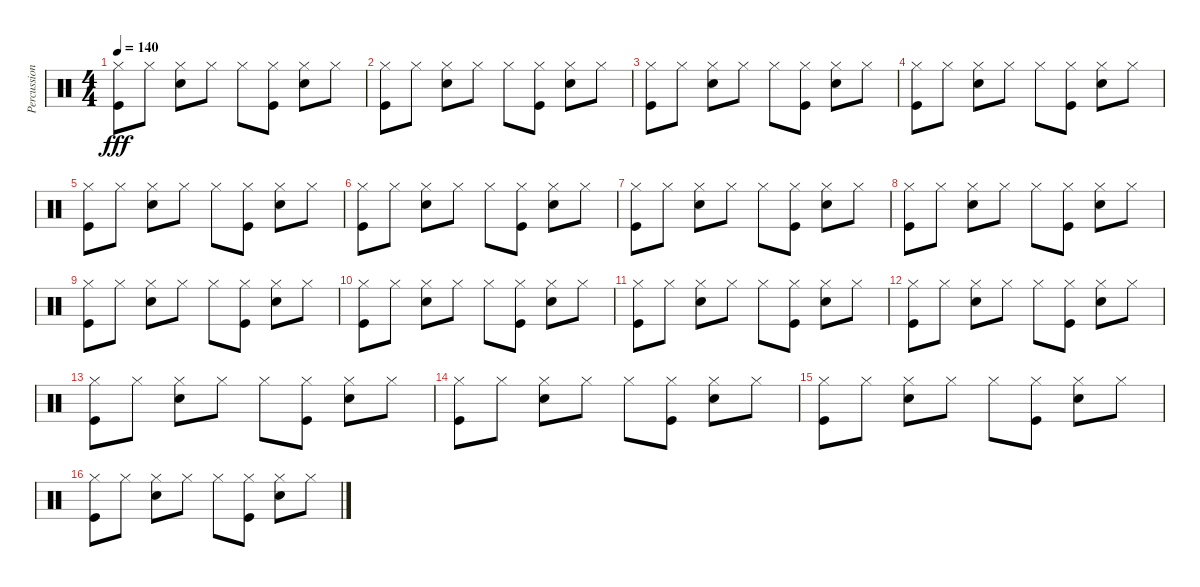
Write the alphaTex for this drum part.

\track ("Percussion" "Percussion") {instrument percussion}
\staff {score}
\articulation defaults
\ts (4 4)
\tempo 140
\clef neutral
\ks c
("Hi-Hat (closed)" "Kick (hit)").8{dy fff} "Hi-Hat (closed)".8 ("Hi-Hat (closed)" "Snare (hit) 2").8 "Hi-Hat (closed)".8 "Hi-Hat (closed)".8 ("Hi-Hat (closed)" "Kick (hit)").8 ("Hi-Hat (closed)" "Snare (hit) 2").8 "Hi-Hat (closed)".8 |
("Hi-Hat (closed)" "Kick (hit)").8 "Hi-Hat (closed)".8 ("Hi-Hat (closed)" "Snare (hit) 2").8 "Hi-Hat (closed)".8 "Hi-Hat (closed)".8 ("Hi-Hat (closed)" "Kick (hit)").8 ("Hi-Hat (closed)" "Snare (hit) 2").8 "Hi-Hat (closed)".8 |
("Hi-Hat (closed)" "Kick (hit)").8 "Hi-Hat (closed)".8 ("Hi-Hat (closed)" "Snare (hit) 2").8 "Hi-Hat (closed)".8 "Hi-Hat (closed)".8 ("Hi-Hat (closed)" "Kick (hit)").8 ("Hi-Hat (closed)" "Snare (hit) 2").8 "Hi-Hat (closed)".8 |
("Hi-Hat (closed)" "Kick (hit)").8 "Hi-Hat (closed)".8 ("Hi-Hat (closed)" "Snare (hit) 2").8 "Hi-Hat (closed)".8 "Hi-Hat (closed)".8 ("Hi-Hat (closed)" "Kick (hit)").8 ("Hi-Hat (closed)" "Snare (hit) 2").8 "Hi-Hat (closed)".8 |
("Hi-Hat (closed)" "Kick (hit)").8 "Hi-Hat (closed)".8 ("Hi-Hat (closed)" "Snare (hit) 2").8 "Hi-Hat (closed)".8 "Hi-Hat (closed)".8 ("Hi-Hat (closed)" "Kick (hit)").8 ("Hi-Hat (closed)" "Snare (hit) 2").8 "Hi-Hat (closed)".8 |
("Hi-Hat (closed)" "Kick (hit)").8 "Hi-Hat (closed)".8 ("Hi-Hat (closed)" "Snare (hit) 2").8 "Hi-Hat (closed)".8 "Hi-Hat (closed)".8 ("Hi-Hat (closed)" "Kick (hit)").8 ("Hi-Hat (closed)" "Snare (hit) 2").8 "Hi-Hat (closed)".8 |
("Hi-Hat (closed)" "Kick (hit)").8 "Hi-Hat (closed)".8 ("Hi-Hat (closed)" "Snare (hit) 2").8 "Hi-Hat (closed)".8 "Hi-Hat (closed)".8 ("Hi-Hat (closed)" "Kick (hit)").8 ("Hi-Hat (closed)" "Snare (hit) 2").8 "Hi-Hat (closed)".8 |
("Hi-Hat (closed)" "Kick (hit)").8 "Hi-Hat (closed)".8 ("Hi-Hat (closed)" "Snare (hit) 2").8 "Hi-Hat (closed)".8 "Hi-Hat (closed)".8 ("Hi-Hat (closed)" "Kick (hit)").8 ("Hi-Hat (closed)" "Snare (hit) 2").8 "Hi-Hat (closed)".8 |
("Hi-Hat (closed)" "Kick (hit)").8 "Hi-Hat (closed)".8 ("Hi-Hat (closed)" "Snare (hit) 2").8 "Hi-Hat (closed)".8 "Hi-Hat (closed)".8 ("Hi-Hat (closed)" "Kick (hit)").8 ("Hi-Hat (closed)" "Snare (hit) 2").8 "Hi-Hat (closed)".8 |
("Hi-Hat (closed)" "Kick (hit)").8 "Hi-Hat (closed)".8 ("Hi-Hat (closed)" "Snare (hit) 2").8 "Hi-Hat (closed)".8 "Hi-Hat (closed)".8 ("Hi-Hat (closed)" "Kick (hit)").8 ("Hi-Hat (closed)" "Snare (hit) 2").8 "Hi-Hat (closed)".8 |
("Hi-Hat (closed)" "Kick (hit)").8 "Hi-Hat (closed)".8 ("Hi-Hat (closed)" "Snare (hit) 2").8 "Hi-Hat (closed)".8 "Hi-Hat (closed)".8 ("Hi-Hat (closed)" "Kick (hit)").8 ("Hi-Hat (closed)" "Snare (hit) 2").8 "Hi-Hat (closed)".8 |
("Hi-Hat (closed)" "Kick (hit)").8 "Hi-Hat (closed)".8 ("Hi-Hat (closed)" "Snare (hit) 2").8 "Hi-Hat (closed)".8 "Hi-Hat (closed)".8 ("Hi-Hat (closed)" "Kick (hit)").8 ("Hi-Hat (closed)" "Snare (hit) 2").8 "Hi-Hat (closed)".8 |
("Hi-Hat (closed)" "Kick (hit)").8 "Hi-Hat (closed)".8 ("Hi-Hat (closed)" "Snare (hit) 2").8 "Hi-Hat (closed)".8 "Hi-Hat (closed)".8 ("Hi-Hat (closed)" "Kick (hit)").8 ("Hi-Hat (closed)" "Snare (hit) 2").8 "Hi-Hat (closed)".8 |
("Hi-Hat (closed)" "Kick (hit)").8 "Hi-Hat (closed)".8 ("Hi-Hat (closed)" "Snare (hit) 2").8 "Hi-Hat (closed)".8 "Hi-Hat (closed)".8 ("Hi-Hat (closed)" "Kick (hit)").8 ("Hi-Hat (closed)" "Snare (hit) 2").8 "Hi-Hat (closed)".8 |
("Hi-Hat (closed)" "Kick (hit)").8 "Hi-Hat (closed)".8 ("Hi-Hat (closed)" "Snare (hit) 2").8 "Hi-Hat (closed)".8 "Hi-Hat (closed)".8 ("Hi-Hat (closed)" "Kick (hit)").8 ("Hi-Hat (closed)" "Snare (hit) 2").8 "Hi-Hat (closed)".8 |
("Hi-Hat (closed)" "Kick (hit)").8 "Hi-Hat (closed)".8 ("Hi-Hat (closed)" "Snare (hit) 2").8 "Hi-Hat (closed)".8 "Hi-Hat (closed)".8 ("Hi-Hat (closed)" "Kick (hit)").8 ("Hi-Hat (closed)" "Snare (hit) 2").8 "Hi-Hat (closed)".8
